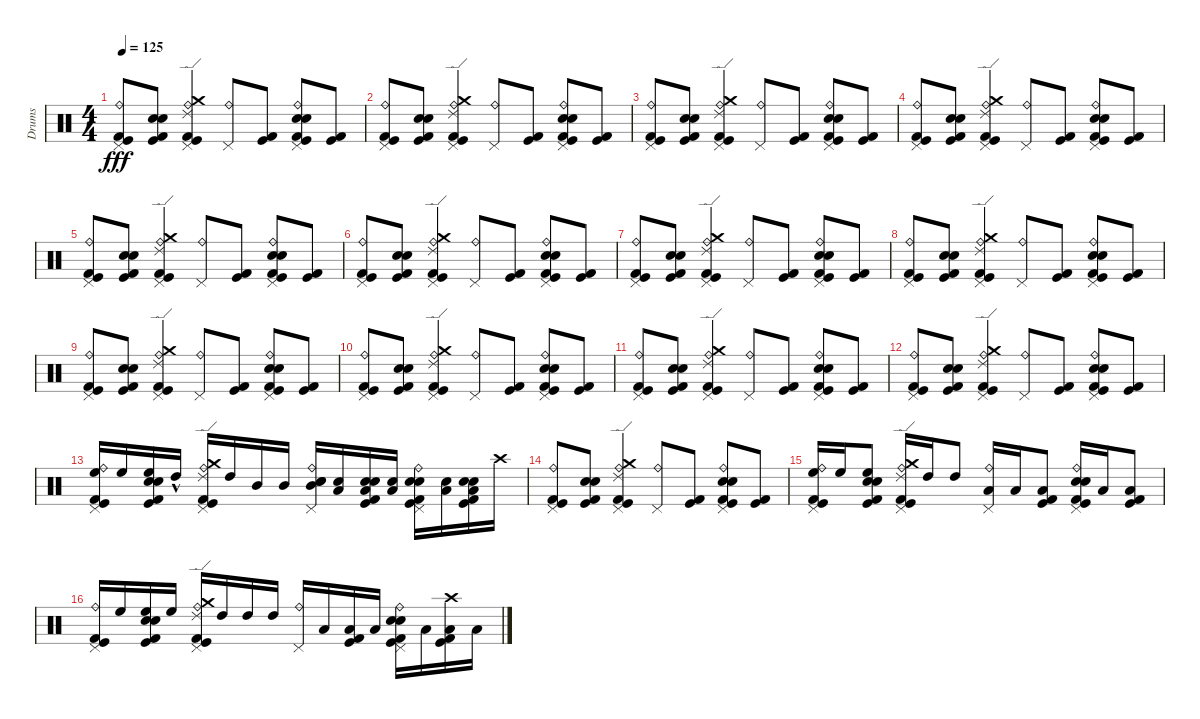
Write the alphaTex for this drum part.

\track ("Drums" "Drums") {instrument percussion}
\staff {score}
\articulation defaults
\ts (4 4)
\tempo 125
\clef neutral
\ks c
("Pedal Hi-Hat (hit)" "Kick (hit) 2" "Kick (hit)" "Ride (bell)").8{dy fff} ("Electric Snare (hit)" "Snare (hit) 2" "Kick (hit)" "Kick (hit) 2").8 ("Kick (hit) 2" "Kick (hit)" "Ride (bell)" "Crash medium (hit)" "Ride (edge) 2" "Pedal Hi-Hat (hit)").4 ("Pedal Hi-Hat (hit)" "Ride (bell)").8 ("Kick (hit) 2" "Kick (hit)").8 ("Pedal Hi-Hat (hit)" "Electric Snare (hit)" "Snare (hit) 2" "Kick (hit) 2" "Kick (hit)" "Ride (bell)").8 ("Kick (hit) 2" "Kick (hit)").8 |
("Pedal Hi-Hat (hit)" "Kick (hit) 2" "Kick (hit)" "Ride (bell)").8 ("Electric Snare (hit)" "Snare (hit) 2" "Kick (hit)" "Kick (hit) 2").8 ("Kick (hit) 2" "Kick (hit)" "Ride (bell)" "Crash medium (hit)" "Ride (edge) 2" "Pedal Hi-Hat (hit)").4 ("Pedal Hi-Hat (hit)" "Ride (bell)").8 ("Kick (hit) 2" "Kick (hit)").8 ("Pedal Hi-Hat (hit)" "Electric Snare (hit)" "Snare (hit) 2" "Kick (hit) 2" "Kick (hit)" "Ride (bell)").8 ("Kick (hit) 2" "Kick (hit)").8 |
("Pedal Hi-Hat (hit)" "Kick (hit) 2" "Kick (hit)" "Ride (bell)").8 ("Electric Snare (hit)" "Snare (hit) 2" "Kick (hit)" "Kick (hit) 2").8 ("Kick (hit) 2" "Kick (hit)" "Ride (bell)" "Crash medium (hit)" "Ride (edge) 2" "Pedal Hi-Hat (hit)").4 ("Pedal Hi-Hat (hit)" "Ride (bell)").8 ("Kick (hit) 2" "Kick (hit)").8 ("Pedal Hi-Hat (hit)" "Electric Snare (hit)" "Snare (hit) 2" "Kick (hit) 2" "Kick (hit)" "Ride (bell)").8 ("Kick (hit) 2" "Kick (hit)").8 |
("Pedal Hi-Hat (hit)" "Kick (hit) 2" "Kick (hit)" "Ride (bell)").8 ("Electric Snare (hit)" "Snare (hit) 2" "Kick (hit)" "Kick (hit) 2").8 ("Kick (hit) 2" "Kick (hit)" "Ride (bell)" "Crash medium (hit)" "Ride (edge) 2" "Pedal Hi-Hat (hit)").4 ("Pedal Hi-Hat (hit)" "Ride (bell)").8 ("Kick (hit) 2" "Kick (hit)").8 ("Pedal Hi-Hat (hit)" "Electric Snare (hit)" "Snare (hit) 2" "Kick (hit) 2" "Kick (hit)" "Ride (bell)").8 ("Kick (hit) 2" "Kick (hit)").8 |
("Pedal Hi-Hat (hit)" "Kick (hit) 2" "Kick (hit)" "Ride (bell)").8 ("Electric Snare (hit)" "Snare (hit) 2" "Kick (hit)" "Kick (hit) 2").8 ("Kick (hit) 2" "Kick (hit)" "Ride (bell)" "Crash medium (hit)" "Ride (edge) 2" "Pedal Hi-Hat (hit)").4 ("Pedal Hi-Hat (hit)" "Ride (bell)").8 ("Kick (hit) 2" "Kick (hit)").8 ("Pedal Hi-Hat (hit)" "Electric Snare (hit)" "Snare (hit) 2" "Kick (hit) 2" "Kick (hit)" "Ride (bell)").8 ("Kick (hit) 2" "Kick (hit)").8 |
("Pedal Hi-Hat (hit)" "Kick (hit) 2" "Kick (hit)" "Ride (bell)").8 ("Electric Snare (hit)" "Snare (hit) 2" "Kick (hit)" "Kick (hit) 2").8 ("Kick (hit) 2" "Kick (hit)" "Ride (bell)" "Crash medium (hit)" "Ride (edge) 2" "Pedal Hi-Hat (hit)").4 ("Pedal Hi-Hat (hit)" "Ride (bell)").8 ("Kick (hit) 2" "Kick (hit)").8 ("Pedal Hi-Hat (hit)" "Electric Snare (hit)" "Snare (hit) 2" "Kick (hit) 2" "Kick (hit)" "Ride (bell)").8 ("Kick (hit) 2" "Kick (hit)").8 |
("Pedal Hi-Hat (hit)" "Kick (hit) 2" "Kick (hit)" "Ride (bell)").8 ("Electric Snare (hit)" "Snare (hit) 2" "Kick (hit)" "Kick (hit) 2").8 ("Kick (hit) 2" "Kick (hit)" "Ride (bell)" "Crash medium (hit)" "Ride (edge) 2" "Pedal Hi-Hat (hit)").4 ("Pedal Hi-Hat (hit)" "Ride (bell)").8 ("Kick (hit) 2" "Kick (hit)").8 ("Pedal Hi-Hat (hit)" "Electric Snare (hit)" "Snare (hit) 2" "Kick (hit) 2" "Kick (hit)" "Ride (bell)").8 ("Kick (hit) 2" "Kick (hit)").8 |
("Pedal Hi-Hat (hit)" "Kick (hit) 2" "Kick (hit)" "Ride (bell)").8 ("Electric Snare (hit)" "Snare (hit) 2" "Kick (hit)" "Kick (hit) 2").8 ("Kick (hit) 2" "Kick (hit)" "Ride (bell)" "Crash medium (hit)" "Ride (edge) 2" "Pedal Hi-Hat (hit)").4 ("Pedal Hi-Hat (hit)" "Ride (bell)").8 ("Kick (hit) 2" "Kick (hit)").8 ("Pedal Hi-Hat (hit)" "Electric Snare (hit)" "Snare (hit) 2" "Kick (hit) 2" "Kick (hit)" "Ride (bell)").8 ("Kick (hit) 2" "Kick (hit)").8 |
("Pedal Hi-Hat (hit)" "Kick (hit) 2" "Kick (hit)" "Ride (bell)").8 ("Electric Snare (hit)" "Snare (hit) 2" "Kick (hit)" "Kick (hit) 2").8 ("Kick (hit) 2" "Kick (hit)" "Ride (bell)" "Crash medium (hit)" "Ride (edge) 2" "Pedal Hi-Hat (hit)").4 ("Pedal Hi-Hat (hit)" "Ride (bell)").8 ("Kick (hit) 2" "Kick (hit)").8 ("Pedal Hi-Hat (hit)" "Electric Snare (hit)" "Snare (hit) 2" "Kick (hit) 2" "Kick (hit)" "Ride (bell)").8 ("Kick (hit) 2" "Kick (hit)").8 |
("Pedal Hi-Hat (hit)" "Kick (hit) 2" "Kick (hit)" "Ride (bell)").8 ("Electric Snare (hit)" "Snare (hit) 2" "Kick (hit)" "Kick (hit) 2").8 ("Kick (hit) 2" "Kick (hit)" "Ride (bell)" "Crash medium (hit)" "Ride (edge) 2" "Pedal Hi-Hat (hit)").4 ("Pedal Hi-Hat (hit)" "Ride (bell)").8 ("Kick (hit) 2" "Kick (hit)").8 ("Pedal Hi-Hat (hit)" "Electric Snare (hit)" "Snare (hit) 2" "Kick (hit) 2" "Kick (hit)" "Ride (bell)").8 ("Kick (hit) 2" "Kick (hit)").8 |
("Pedal Hi-Hat (hit)" "Kick (hit) 2" "Kick (hit)" "Ride (bell)").8 ("Electric Snare (hit)" "Snare (hit) 2" "Kick (hit)" "Kick (hit) 2").8 ("Kick (hit) 2" "Kick (hit)" "Ride (bell)" "Crash medium (hit)" "Ride (edge) 2" "Pedal Hi-Hat (hit)").4 ("Pedal Hi-Hat (hit)" "Ride (bell)").8 ("Kick (hit) 2" "Kick (hit)").8 ("Pedal Hi-Hat (hit)" "Electric Snare (hit)" "Snare (hit) 2" "Kick (hit) 2" "Kick (hit)" "Ride (bell)").8 ("Kick (hit) 2" "Kick (hit)").8 |
("Pedal Hi-Hat (hit)" "Kick (hit) 2" "Kick (hit)" "Ride (bell)").8 ("Electric Snare (hit)" "Snare (hit) 2" "Kick (hit)" "Kick (hit) 2").8 ("Kick (hit) 2" "Kick (hit)" "Ride (bell)" "Crash medium (hit)" "Ride (edge) 2" "Pedal Hi-Hat (hit)").4 ("Pedal Hi-Hat (hit)" "Ride (bell)").8 ("Kick (hit) 2" "Kick (hit)").8 ("Pedal Hi-Hat (hit)" "Electric Snare (hit)" "Snare (hit) 2" "Kick (hit) 2" "Kick (hit)" "Ride (bell)").8 ("Kick (hit) 2" "Kick (hit)").8 |
("Pedal Hi-Hat (hit)" "Kick (hit) 2" "Kick (hit)" "Ride (bell)" "High Floor Tom (hit)").16 "High Floor Tom (hit)".16 ("Electric Snare (hit)" "Snare (hit) 2" "Kick (hit)" "Kick (hit) 2" "High Floor Tom (hit)").16 "High Tom (hit)"{hac}.16 ("Pedal Hi-Hat (hit)" "Kick (hit) 2" "Kick (hit)" "Ride (bell)" "Crash medium (hit)" "Ride (edge) 2").16 "High Tom (hit)".16 "Mid Tom (hit)".16 "Mid Tom (hit)".16 ("Pedal Hi-Hat (hit)" "Ride (bell)" "Mid Tom (hit)" "Electric Snare (hit)" "Snare (hit) 2").16 ("Low Tom (hit)" "Electric Snare (hit)").16 ("Kick (hit) 2" "Kick (hit)" "Low Tom (hit)" "Electric Snare (hit)" "Snare (hit) 2").16 ("Low Tom (hit)" "Electric Snare (hit)").16 ("Pedal Hi-Hat (hit)" "Electric Snare (hit)" "Snare (hit) 2" "Kick (hit) 2" "Kick (hit)" "Ride (bell)").16 ("Low Floor Tom (hit)" "Electric Snare (hit)").16 ("Kick (hit) 2" "Kick (hit)" "Low Floor Tom (hit)" "Electric Snare (hit)" "Snare (hit) 2").16 "Crash high (hit)".16 |
("Pedal Hi-Hat (hit)" "Kick (hit) 2" "Kick (hit)" "Ride (bell)").8 ("Electric Snare (hit)" "Snare (hit) 2" "Kick (hit)" "Kick (hit) 2").8 ("Kick (hit) 2" "Kick (hit)" "Ride (bell)" "Crash medium (hit)" "Ride (edge) 2" "Pedal Hi-Hat (hit)").4 ("Pedal Hi-Hat (hit)" "Ride (bell)").8 ("Kick (hit) 2" "Kick (hit)").8 ("Pedal Hi-Hat (hit)" "Electric Snare (hit)" "Snare (hit) 2" "Kick (hit) 2" "Kick (hit)" "Ride (bell)").8 ("Kick (hit) 2" "Kick (hit)").8 |
("Pedal Hi-Hat (hit)" "Kick (hit) 2" "Kick (hit)" "Ride (bell)" "High Floor Tom (hit)").16 "High Floor Tom (hit)".16 ("Electric Snare (hit)" "Snare (hit) 2" "Kick (hit)" "Kick (hit) 2" "High Floor Tom (hit)").8 ("Pedal Hi-Hat (hit)" "Kick (hit) 2" "Kick (hit)" "Ride (bell)" "Crash medium (hit)" "Ride (edge) 2").16 "High Tom (hit)".16 "High Tom (hit)".8 ("Ride (bell)" "Low Tom (hit)" "Pedal Hi-Hat (hit)").16 "Low Tom (hit)".16 ("Kick (hit) 2" "Kick (hit)" "Low Tom (hit)").8 ("Pedal Hi-Hat (hit)" "Electric Snare (hit)" "Snare (hit) 2" "Kick (hit) 2" "Kick (hit)" "Ride (bell)").16 "Low Floor Tom (hit)".16 ("Kick (hit) 2" "Kick (hit)" "Low Floor Tom (hit)").8 |
("Pedal Hi-Hat (hit)" "Kick (hit) 2" "Kick (hit)" "Ride (bell)").16 "High Floor Tom (hit)".16 ("Electric Snare (hit)" "Snare (hit) 2" "Kick (hit)" "Kick (hit) 2" "High Floor Tom (hit)").16 "High Floor Tom (hit)".16 ("Pedal Hi-Hat (hit)" "Kick (hit) 2" "Kick (hit)" "Ride (bell)" "Crash medium (hit)" "Ride (edge) 2").16 "High Tom (hit)".16 "High Tom (hit)".16 "High Tom (hit)".16 ("Pedal Hi-Hat (hit)" "Ride (bell)").16 "Low Tom (hit)".16 ("Kick (hit) 2" "Kick (hit)" "Low Tom (hit)").16 "Low Tom (hit)".16 ("Pedal Hi-Hat (hit)" "Electric Snare (hit)" "Snare (hit) 2" "Kick (hit) 2" "Kick (hit)" "Ride (bell)").16 "Low Floor Tom (hit)".16 ("Kick (hit) 2" "Kick (hit)" "Low Floor Tom (hit)" "Crash high (hit)").16 "Low Floor Tom (hit)".16
